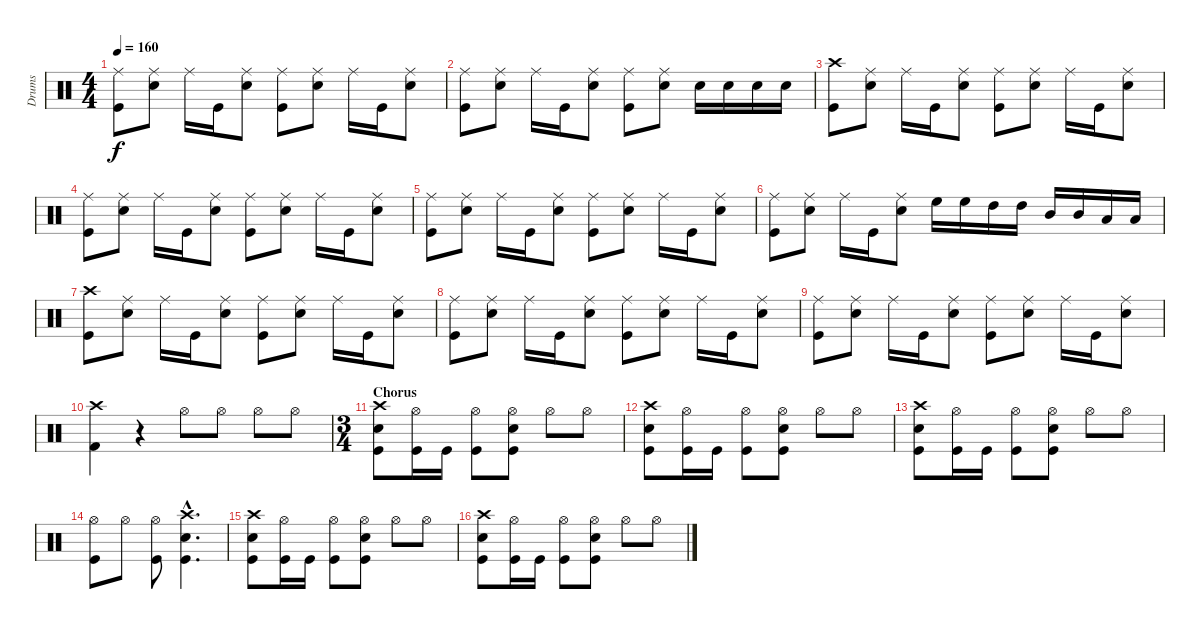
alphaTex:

\track ("Drums" "Drums") {instrument percussion}
\staff {score}
\articulation defaults
\ts (4 4)
\tempo 160
\clef neutral
\ks c
("Ride (middle)" "Kick (hit)").8{dy f} ("Ride (middle)" "Snare (hit) 2").8 "Ride (middle)".16 "Kick (hit)".16 ("Ride (middle)" "Snare (hit) 2").8 ("Ride (middle)" "Kick (hit)").8 ("Ride (middle)" "Snare (hit) 2").8 "Ride (middle)".16 "Kick (hit)".16 ("Ride (middle)" "Snare (hit) 2").8 |
("Ride (middle)" "Kick (hit)").8 ("Ride (middle)" "Snare (hit) 2").8 "Ride (middle)".16 "Kick (hit)".16 ("Ride (middle)" "Snare (hit) 2").8 ("Ride (middle)" "Kick (hit)").8 ("Ride (middle)" "Snare (hit) 2").8 "Snare (hit) 2".16 "Snare (hit) 2".16 "Snare (hit) 2".16 "Snare (hit) 2".16 |
("Crash high (hit)" "Kick (hit)").8 ("Ride (middle)" "Snare (hit) 2").8 "Ride (middle)".16 "Kick (hit)".16 ("Ride (middle)" "Snare (hit) 2").8 ("Ride (middle)" "Kick (hit)").8 ("Ride (middle)" "Snare (hit) 2").8 "Ride (middle)".16 "Kick (hit)".16 ("Ride (middle)" "Snare (hit) 2").8 |
("Ride (middle)" "Kick (hit)").8 ("Ride (middle)" "Snare (hit) 2").8 "Ride (middle)".16 "Kick (hit)".16 ("Ride (middle)" "Snare (hit) 2").8 ("Ride (middle)" "Kick (hit)").8 ("Ride (middle)" "Snare (hit) 2").8 "Ride (middle)".16 "Kick (hit)".16 ("Ride (middle)" "Snare (hit) 2").8 |
("Ride (middle)" "Kick (hit)").8 ("Ride (middle)" "Snare (hit) 2").8 "Ride (middle)".16 "Kick (hit)".16 ("Ride (middle)" "Snare (hit) 2").8 ("Ride (middle)" "Kick (hit)").8 ("Ride (middle)" "Snare (hit) 2").8 "Ride (middle)".16 "Kick (hit)".16 ("Ride (middle)" "Snare (hit) 2").8 |
("Ride (middle)" "Kick (hit)").8 ("Ride (middle)" "Snare (hit) 2").8 "Ride (middle)".16 "Kick (hit)".16 ("Ride (middle)" "Snare (hit) 2").8 "High Floor Tom (hit)".16 "High Floor Tom (hit)".16 "High Tom (hit)".16 "High Tom (hit)".16 "Mid Tom (hit)".16 "Mid Tom (hit)".16 "Low Tom (hit)".16 "Low Tom (hit)".16 |
("Crash high (hit)" "Kick (hit)").8 ("Ride (middle)" "Snare (hit) 2").8 "Ride (middle)".16 "Kick (hit)".16 ("Ride (middle)" "Snare (hit) 2").8 ("Ride (middle)" "Kick (hit)").8 ("Ride (middle)" "Snare (hit) 2").8 "Ride (middle)".16 "Kick (hit)".16 ("Ride (middle)" "Snare (hit) 2").8 |
("Ride (middle)" "Kick (hit)").8 ("Ride (middle)" "Snare (hit) 2").8 "Ride (middle)".16 "Kick (hit)".16 ("Ride (middle)" "Snare (hit) 2").8 ("Ride (middle)" "Kick (hit)").8 ("Ride (middle)" "Snare (hit) 2").8 "Ride (middle)".16 "Kick (hit)".16 ("Ride (middle)" "Snare (hit) 2").8 |
("Ride (middle)" "Kick (hit)").8 ("Ride (middle)" "Snare (hit) 2").8 "Ride (middle)".16 "Kick (hit)".16 ("Ride (middle)" "Snare (hit) 2").8 ("Ride (middle)" "Kick (hit)").8 ("Ride (middle)" "Snare (hit) 2").8 "Ride (middle)".16 "Kick (hit)".16 ("Ride (middle)" "Snare (hit) 2").8 |
("Crash high (hit)" "Kick (hit) 2").4 r.4 "Hi-Hat (open)".8 "Hi-Hat (open)".8 "Hi-Hat (open)".8 "Hi-Hat (open)".8 |
\ts (3 4)
\section ("" "Chorus")
("Crash high (hit)" "Snare (hit) 2" "Kick (hit)").8 ("Hi-Hat (open)" "Kick (hit)").16 "Kick (hit)".16 ("Hi-Hat (open)" "Kick (hit)").8 ("Hi-Hat (open)" "Snare (hit) 2" "Kick (hit)").8 "Hi-Hat (open)".8 "Hi-Hat (open)".8 |
("Crash high (hit)" "Snare (hit) 2" "Kick (hit)").8 ("Hi-Hat (open)" "Kick (hit)").16 "Kick (hit)".16 ("Hi-Hat (open)" "Kick (hit)").8 ("Hi-Hat (open)" "Snare (hit) 2" "Kick (hit)").8 "Hi-Hat (open)".8 "Hi-Hat (open)".8 |
("Crash high (hit)" "Snare (hit) 2" "Kick (hit)").8 ("Hi-Hat (open)" "Kick (hit)").16 "Kick (hit)".16 ("Hi-Hat (open)" "Kick (hit)").8 ("Hi-Hat (open)" "Snare (hit) 2" "Kick (hit)").8 "Hi-Hat (open)".8 "Hi-Hat (open)".8 |
("Hi-Hat (open)" "Kick (hit)").8 "Hi-Hat (open)".8 ("Hi-Hat (open)" "Kick (hit)").8 ("Crash high (hit)"{hac} "Snare (hit) 2"{hac} "Kick (hit)"{hac}).4{d} |
("Crash high (hit)" "Snare (hit) 2" "Kick (hit)").8 ("Hi-Hat (open)" "Kick (hit)").16 "Kick (hit)".16 ("Hi-Hat (open)" "Kick (hit)").8 ("Hi-Hat (open)" "Snare (hit) 2" "Kick (hit)").8 "Hi-Hat (open)".8 "Hi-Hat (open)".8 |
("Crash high (hit)" "Snare (hit) 2" "Kick (hit)").8 ("Hi-Hat (open)" "Kick (hit)").16 "Kick (hit)".16 ("Hi-Hat (open)" "Kick (hit)").8 ("Hi-Hat (open)" "Snare (hit) 2" "Kick (hit)").8 "Hi-Hat (open)".8 "Hi-Hat (open)".8
